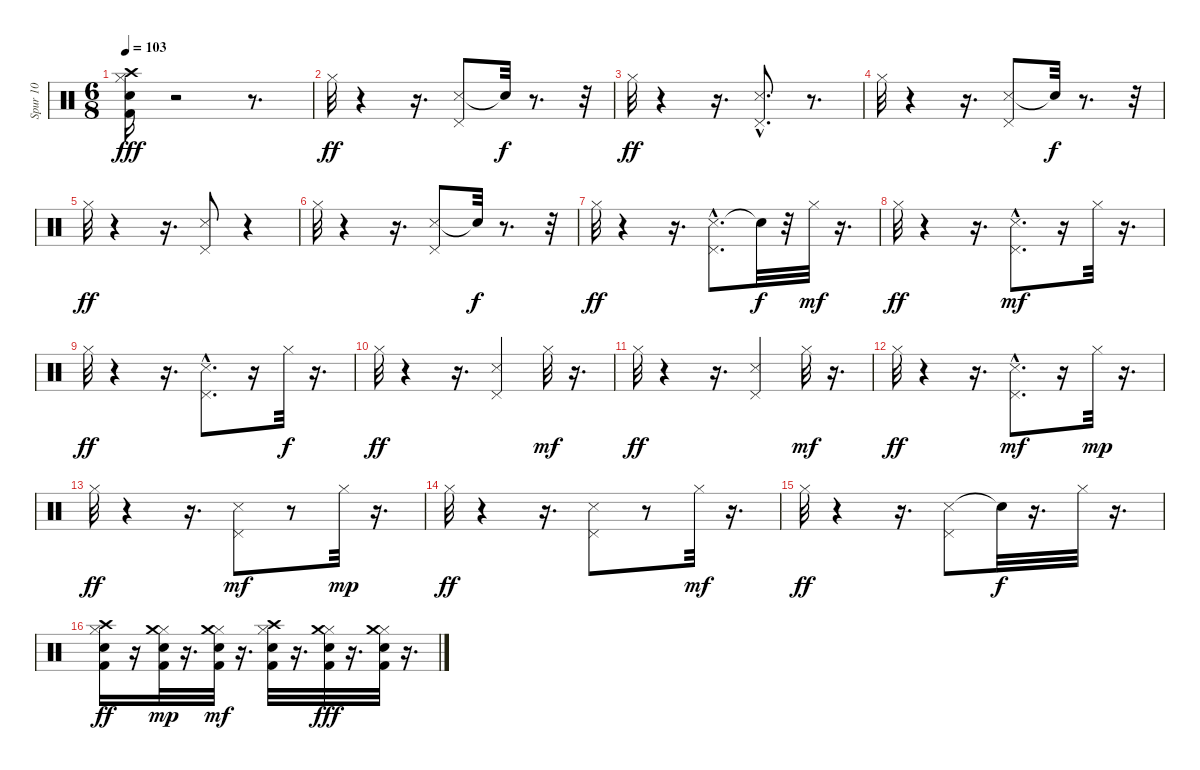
\track ("Spur 10" "Spur 10") {instrument percussion}
\staff {score}
\articulation defaults
\ts (6 8)
\tempo 103
\clef neutral
\ks c
("Kick (hit) 2" "Snare (hit) 2" "Hi-Hat (closed)" "Crash high (hit)").16{dy fff} r.2 r.8{d} |
"Hi-Hat (closed)".32{dy ff} r.4 r.16{d} ("Snare (side stick) 3" "Pedal Hi-Hat (hit)").8 "Snare (hit)"{t}.32{dy f} r.8{d} r.32 |
"Hi-Hat (closed)".32{dy ff} r.4 r.16{d} ("Snare (side stick) 3"{hac} "Pedal Hi-Hat (hit)").8{d} r.8{d} |
"Hi-Hat (closed)".32 r.4 r.16{d} ("Snare (side stick) 3" "Pedal Hi-Hat (hit)").8 "Snare (hit)"{t}.32{dy f} r.8{d} r.32 |
"Hi-Hat (closed)".32{dy ff} r.4 r.16{d} ("Snare (side stick) 3" "Pedal Hi-Hat (hit)").8 r.4 |
"Hi-Hat (closed)".32 r.4 r.16{d} ("Snare (side stick) 3" "Pedal Hi-Hat (hit)").8 "Snare (hit)"{t}.32{dy f} r.8{d} r.32 |
"Hi-Hat (closed)".32{dy ff} r.4 r.16{d} ("Snare (side stick) 3"{hac} "Pedal Hi-Hat (hit)").8{d} "Snare (hit)"{t}.32{dy f} r.32 "Hi-Hat (closed)".32{dy mf} r.16{d} |
"Hi-Hat (closed)".32{dy ff} r.4 r.16{d} ("Snare (side stick) 3"{hac} "Pedal Hi-Hat (hit)").8{d dy mf} r.16 "Hi-Hat (closed)".32 r.16{d} |
"Hi-Hat (closed)".32{dy ff} r.4 r.16{d} ("Snare (side stick) 3"{hac} "Pedal Hi-Hat (hit)").8{d} r.16 "Hi-Hat (closed)".32{dy f} r.16{d} |
"Hi-Hat (closed)".32{dy ff} r.4 r.16{d} ("Snare (side stick) 3" "Pedal Hi-Hat (hit)").4 "Hi-Hat (closed)".32{dy mf} r.16{d} |
"Hi-Hat (closed)".32{dy ff} r.4 r.16{d} ("Snare (side stick) 3" "Pedal Hi-Hat (hit)").4 "Hi-Hat (closed)".32{dy mf} r.16{d} |
"Hi-Hat (closed)".32{dy ff} r.4 r.16{d} ("Snare (side stick) 3"{hac} "Pedal Hi-Hat (hit)").8{d dy mf} r.16 "Hi-Hat (closed)".32{dy mp} r.16{d} |
"Hi-Hat (closed)".32{dy ff} r.4 r.16{d} ("Snare (side stick) 3" "Pedal Hi-Hat (hit)").8{dy mf} r.8 "Hi-Hat (closed)".32{dy mp} r.16{d} |
"Hi-Hat (closed)".32{dy ff} r.4 r.16{d} ("Snare (side stick) 3" "Pedal Hi-Hat (hit)").8 r.8 "Hi-Hat (closed)".32{dy mf} r.16{d} |
"Hi-Hat (closed)".32{dy ff} r.4 r.16{d} ("Snare (side stick) 3" "Pedal Hi-Hat (hit)").8 "Snare (hit)"{t}.32{dy f} r.16{d} "Hi-Hat (closed)".32 r.16{d} |
("Kick (hit) 2" "Snare (hit) 2" "Hi-Hat (closed)" "Crash high (hit)").16{dy ff} r.16 ("Kick (hit) 2" "Snare (hit) 2" "Hi-Hat (closed)" "Crash medium (hit)").32{dy mp} r.16{d} ("Kick (hit) 2" "Snare (hit) 2" "Hi-Hat (closed)" "Crash medium (hit)").32{dy mf} r.16{d} ("Kick (hit) 2" "Snare (hit) 2" "Hi-Hat (closed)" "Crash high (hit)").32 r.16{d} ("Kick (hit) 2" "Snare (hit) 2" "Hi-Hat (closed)" "Crash medium (hit)").32{dy fff} r.16{d} ("Kick (hit) 2" "Snare (hit) 2" "Hi-Hat (closed)" "Crash medium (hit)").32 r.16{d}
